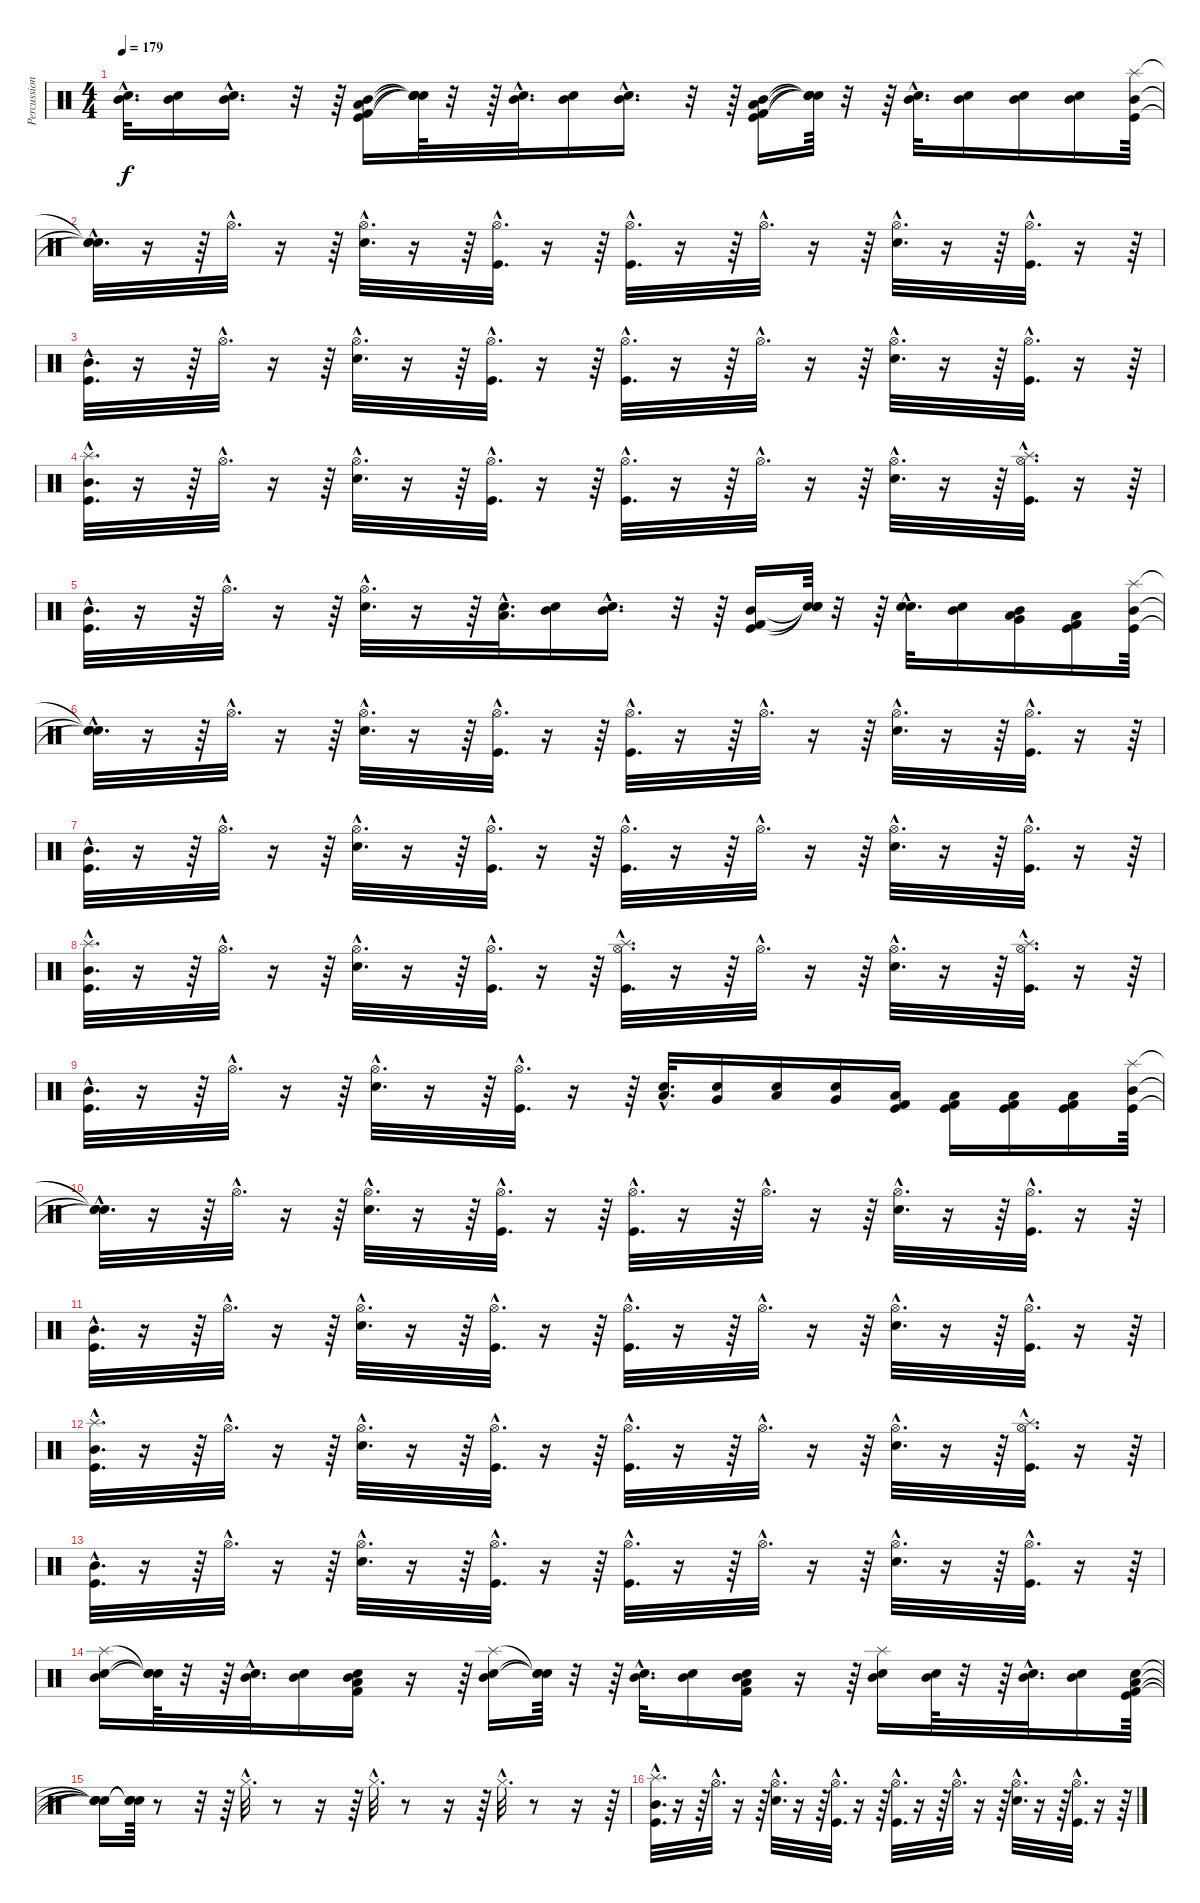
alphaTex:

\track ("Percussion" "Percussion") {instrument percussion}
\staff {score}
\articulation defaults
\ts (4 4)
\tempo 179
\clef neutral
\ks c
("Mid Tom (hit)"{hac} "Snare (hit) 2"{hac}).32{d dy f} ("Mid Tom (hit)" "Snare (hit) 2").16 ("Mid Tom (hit)"{hac} "Snare (hit) 2"{hac}).16{d} r.32 r.64 ("Mid Tom (hit)" "Kick (hit)" "Kick (hit) 2" "Low Tom (hit)").16 ("Snare (hit)"{t} "Snare (hit)"{t} "Snare (hit)"{t} "Snare (hit)"{t}).64 r.32 r.64 ("Mid Tom (hit)"{hac} "Snare (hit) 2"{hac}).32{d} ("Mid Tom (hit)" "Snare (hit) 2").16 ("Mid Tom (hit)"{hac} "Snare (hit) 2"{hac}).16{d} r.32 r.64 ("Mid Tom (hit)" "Kick (hit)" "Kick (hit) 2" "Low Tom (hit)").16 ("Snare (hit)"{t} "Snare (hit)"{t} "Snare (hit)"{t} "Snare (hit)"{t}).64 r.32 r.64 ("Snare (hit) 2"{hac} "Mid Tom (hit)"{hac}).32{d} ("Snare (hit) 2" "Mid Tom (hit)").16 ("Snare (hit) 2" "Mid Tom (hit)").16 ("Snare (hit) 2" "Mid Tom (hit)").16 ("Splash (hit)" "Mid Tom (hit)" "Kick (hit)").64 |
("Snare (hit)"{hac t} "Snare (hit)"{hac t} "Snare (hit)"{hac t}).32{d} r.16 r.64 "Hi-Hat (open)"{hac}.32{d} r.16 r.64 ("Hi-Hat (open)"{hac} "Snare (hit) 2"{hac}).32{d} r.16 r.64 ("Hi-Hat (open)"{hac} "Kick (hit)"{hac}).32{d} r.16 r.64 ("Hi-Hat (open)"{hac} "Kick (hit)"{hac}).32{d} r.16 r.64 "Hi-Hat (open)"{hac}.32{d} r.16 r.64 ("Hi-Hat (open)"{hac} "Snare (hit) 2"{hac}).32{d} r.16 r.64 ("Hi-Hat (open)"{hac} "Kick (hit)"{hac}).32{d} r.16 r.64 |
("Mid Tom (hit)"{hac} "Kick (hit)"{hac}).32{d} r.16 r.64 "Hi-Hat (open)"{hac}.32{d} r.16 r.64 ("Hi-Hat (open)"{hac} "Snare (hit) 2"{hac}).32{d} r.16 r.64 ("Hi-Hat (open)"{hac} "Kick (hit)"{hac}).32{d} r.16 r.64 ("Hi-Hat (open)"{hac} "Kick (hit)"{hac}).32{d} r.16 r.64 "Hi-Hat (open)"{hac}.32{d} r.16 r.64 ("Hi-Hat (open)"{hac} "Snare (hit) 2"{hac}).32{d} r.16 r.64 ("Hi-Hat (open)"{hac} "Kick (hit)"{hac}).32{d} r.16 r.64 |
("Splash (hit)"{hac} "Mid Tom (hit)"{hac} "Kick (hit)"{hac}).32{d} r.16 r.64 "Hi-Hat (open)"{hac}.32{d} r.16 r.64 ("Hi-Hat (open)"{hac} "Snare (hit) 2"{hac}).32{d} r.16 r.64 ("Hi-Hat (open)"{hac} "Kick (hit)"{hac}).32{d} r.16 r.64 ("Hi-Hat (open)"{hac} "Kick (hit)"{hac}).32{d} r.16 r.64 "Hi-Hat (open)"{hac}.32{d} r.16 r.64 ("Hi-Hat (open)"{hac} "Snare (hit) 2"{hac}).32{d} r.16 r.64 ("Splash (hit)"{hac} "Hi-Hat (open)"{hac} "Kick (hit)"{hac}).32{d} r.16 r.64 |
("Mid Tom (hit)"{hac} "Kick (hit)"{hac}).32{d} r.16 r.64 "Hi-Hat (open)"{hac}.32{d} r.16 r.64 ("Hi-Hat (open)"{hac} "Snare (hit) 2"{hac}).32{d} r.16 r.64 ("Snare (hit) 2"{hac} "Low Tom (hit)"{hac}).32{d} ("Snare (hit) 2" "Mid Tom (hit)").16 ("Snare (hit) 2"{hac} "Mid Tom (hit)"{hac}).16{d} r.32 r.64 ("Mid Tom (hit)" "Kick (hit)" "Kick (hit) 2").16 ("Snare (hit)"{t} "Snare (hit)"{t} "Snare (hit)"{t}).64 r.32 r.64 ("Electric Snare (hit)"{hac} "Snare (hit) 2"{hac}).32{d} ("Snare (hit) 2" "Mid Tom (hit)").16 ("Very Low Tom (hit)" "Mid Tom (hit)" "Low Floor Tom (hit)").16 ("Kick (hit)" "Kick (hit) 2" "Low Tom (hit)").16 ("Splash (hit)" "Mid Tom (hit)" "Kick (hit)").64 |
("Snare (hit)"{hac t} "Snare (hit)"{hac t} "Snare (hit)"{hac t}).32{d} r.16 r.64 "Hi-Hat (open)"{hac}.32{d} r.16 r.64 ("Hi-Hat (open)"{hac} "Snare (hit) 2"{hac}).32{d} r.16 r.64 ("Hi-Hat (open)"{hac} "Kick (hit)"{hac}).32{d} r.16 r.64 ("Hi-Hat (open)"{hac} "Kick (hit)"{hac}).32{d} r.16 r.64 "Hi-Hat (open)"{hac}.32{d} r.16 r.64 ("Hi-Hat (open)"{hac} "Snare (hit) 2"{hac}).32{d} r.16 r.64 ("Hi-Hat (open)"{hac} "Kick (hit)"{hac}).32{d} r.16 r.64 |
("Mid Tom (hit)"{hac} "Kick (hit)"{hac}).32{d} r.16 r.64 "Hi-Hat (open)"{hac}.32{d} r.16 r.64 ("Hi-Hat (open)"{hac} "Snare (hit) 2"{hac}).32{d} r.16 r.64 ("Hi-Hat (open)"{hac} "Kick (hit)"{hac}).32{d} r.16 r.64 ("Hi-Hat (open)"{hac} "Kick (hit)"{hac}).32{d} r.16 r.64 "Hi-Hat (open)"{hac}.32{d} r.16 r.64 ("Hi-Hat (open)"{hac} "Snare (hit) 2"{hac}).32{d} r.16 r.64 ("Hi-Hat (open)"{hac} "Kick (hit)"{hac}).32{d} r.16 r.64 |
("Splash (hit)"{hac} "Mid Tom (hit)"{hac} "Kick (hit)"{hac}).32{d} r.16 r.64 "Hi-Hat (open)"{hac}.32{d} r.16 r.64 ("Hi-Hat (open)"{hac} "Snare (hit) 2"{hac}).32{d} r.16 r.64 ("Hi-Hat (open)"{hac} "Kick (hit)"{hac}).32{d} r.16 r.64 ("Splash (hit)"{hac} "Hi-Hat (open)"{hac} "Kick (hit)"{hac}).32{d} r.16 r.64 "Hi-Hat (open)"{hac}.32{d} r.16 r.64 ("Hi-Hat (open)"{hac} "Snare (hit) 2"{hac}).32{d} r.16 r.64 ("Splash (hit)"{hac} "Hi-Hat (open)"{hac} "Kick (hit)"{hac}).32{d} r.16 r.64 |
("Mid Tom (hit)"{hac} "Kick (hit)"{hac}).32{d} r.16 r.64 "Hi-Hat (open)"{hac}.32{d} r.16 r.64 ("Hi-Hat (open)"{hac} "Snare (hit) 2"{hac}).32{d} r.16 r.64 ("Hi-Hat (open)"{hac} "Kick (hit)"{hac}).32{d} r.16 r.64 ("Electric Snare (hit)"{hac} "Low Tom (hit)"{hac}).32{d} ("Electric Snare (hit)" "Very Low Tom (hit)").16 ("Electric Snare (hit)" "Low Tom (hit)").16 ("Electric Snare (hit)" "Very Low Tom (hit)").16 ("Kick (hit)" "Kick (hit) 2" "Low Floor Tom (hit)").16 ("Kick (hit)" "Kick (hit) 2" "Low Floor Tom (hit)").16 ("Kick (hit)" "Low Floor Tom (hit)" "Kick (hit) 2").16 ("Kick (hit)" "Kick (hit) 2" "Low Floor Tom (hit)").16 ("Splash (hit)" "Mid Tom (hit)" "Kick (hit)").64 |
("Snare (hit)"{hac t} "Snare (hit)"{hac t} "Snare (hit)"{hac t}).32{d} r.16 r.64 "Hi-Hat (open)"{hac}.32{d} r.16 r.64 ("Hi-Hat (open)"{hac} "Snare (hit) 2"{hac}).32{d} r.16 r.64 ("Hi-Hat (open)"{hac} "Kick (hit)"{hac}).32{d} r.16 r.64 ("Hi-Hat (open)"{hac} "Kick (hit)"{hac}).32{d} r.16 r.64 "Hi-Hat (open)"{hac}.32{d} r.16 r.64 ("Hi-Hat (open)"{hac} "Snare (hit) 2"{hac}).32{d} r.16 r.64 ("Hi-Hat (open)"{hac} "Kick (hit)"{hac}).32{d} r.16 r.64 |
("Mid Tom (hit)"{hac} "Kick (hit)"{hac}).32{d} r.16 r.64 "Hi-Hat (open)"{hac}.32{d} r.16 r.64 ("Hi-Hat (open)"{hac} "Snare (hit) 2"{hac}).32{d} r.16 r.64 ("Hi-Hat (open)"{hac} "Kick (hit)"{hac}).32{d} r.16 r.64 ("Hi-Hat (open)"{hac} "Kick (hit)"{hac}).32{d} r.16 r.64 "Hi-Hat (open)"{hac}.32{d} r.16 r.64 ("Hi-Hat (open)"{hac} "Snare (hit) 2"{hac}).32{d} r.16 r.64 ("Hi-Hat (open)"{hac} "Kick (hit)"{hac}).32{d} r.16 r.64 |
("Splash (hit)"{hac} "Mid Tom (hit)"{hac} "Kick (hit)"{hac}).32{d} r.16 r.64 "Hi-Hat (open)"{hac}.32{d} r.16 r.64 ("Hi-Hat (open)"{hac} "Snare (hit) 2"{hac}).32{d} r.16 r.64 ("Hi-Hat (open)"{hac} "Kick (hit)"{hac}).32{d} r.16 r.64 ("Hi-Hat (open)"{hac} "Kick (hit)"{hac}).32{d} r.16 r.64 "Hi-Hat (open)"{hac}.32{d} r.16 r.64 ("Hi-Hat (open)"{hac} "Snare (hit) 2"{hac}).32{d} r.16 r.64 ("Splash (hit)"{hac} "Hi-Hat (open)"{hac} "Kick (hit)"{hac}).32{d} r.16 r.64 |
("Mid Tom (hit)"{hac} "Kick (hit)"{hac}).32{d} r.16 r.64 "Hi-Hat (open)"{hac}.32{d} r.16 r.64 ("Hi-Hat (open)"{hac} "Snare (hit) 2"{hac}).32{d} r.16 r.64 ("Hi-Hat (open)"{hac} "Kick (hit)"{hac}).32{d} r.16 r.64 ("Hi-Hat (open)"{hac} "Kick (hit)"{hac}).32{d} r.16 r.64 "Hi-Hat (open)"{hac}.32{d} r.16 r.64 ("Hi-Hat (open)"{hac} "Snare (hit) 2"{hac}).32{d} r.16 r.64 ("Hi-Hat (open)"{hac} "Kick (hit)"{hac}).32{d} r.16 r.64 |
("Mid Tom (hit)" "Snare (hit) 2" "Splash (hit)").16 ("Snare (hit)"{t} "Snare (hit)"{t} "Snare (hit)"{t}).64 r.32 r.64 ("Mid Tom (hit)"{hac} "Snare (hit) 2"{hac}).32{d} ("Mid Tom (hit)" "Snare (hit) 2").16 ("Mid Tom (hit)" "Snare (hit) 2" "Kick (hit) 2" "Low Floor Tom (hit)").16 r.16 r.64 ("Mid Tom (hit)" "Snare (hit) 2" "Splash (hit)").16 ("Snare (hit)"{t} "Snare (hit)"{t} "Snare (hit)"{t}).64 r.32 r.64 ("Mid Tom (hit)"{hac} "Snare (hit) 2"{hac}).32{d} ("Mid Tom (hit)" "Snare (hit) 2").16 ("Mid Tom (hit)" "Low Floor Tom (hit)" "Snare (hit) 2" "Kick (hit) 2").16 r.16 r.64 ("Mid Tom (hit)" "Snare (hit) 2" "Splash (hit)").16 ("Mid Tom (hit)" "Snare (hit) 2").64 r.32 r.64 ("Mid Tom (hit)"{hac} "Snare (hit) 2"{hac}).32{d} ("Mid Tom (hit)" "Snare (hit) 2").16 ("Kick (hit)" "Kick (hit) 2" "Snare (hit) 2" "Low Tom (hit)").64 |
("Snare (hit)"{t} "Snare (hit)"{t} "Snare (hit)"{t} "Snare (hit)"{t}).16 ("Snare (hit)"{t} "Snare (hit)"{t} "Snare (hit)"{t} "Snare (hit)"{t}).64 r.8 r.32 r.64 "Hi-Hat (closed)"{hac}.32{d} r.8 r.16 r.64 "Hi-Hat (closed)"{hac}.32{d} r.8 r.16 r.64 "Hi-Hat (closed)"{hac}.32{d} r.8 r.16 r.64 |
("Splash (hit)"{hac} "Mid Tom (hit)"{hac} "Kick (hit)"{hac}).32{d} r.16 r.64 "Hi-Hat (open)"{hac}.32{d} r.16 r.64 ("Hi-Hat (open)"{hac} "Snare (hit) 2"{hac}).32{d} r.16 r.64 ("Hi-Hat (open)"{hac} "Kick (hit)"{hac}).32{d} r.16 r.64 ("Hi-Hat (open)"{hac} "Kick (hit)"{hac}).32{d} r.16 r.64 "Hi-Hat (open)"{hac}.32{d} r.16 r.64 ("Hi-Hat (open)"{hac} "Snare (hit) 2"{hac}).32{d} r.16 r.64 ("Hi-Hat (open)"{hac} "Kick (hit)"{hac}).32{d} r.16 r.64
